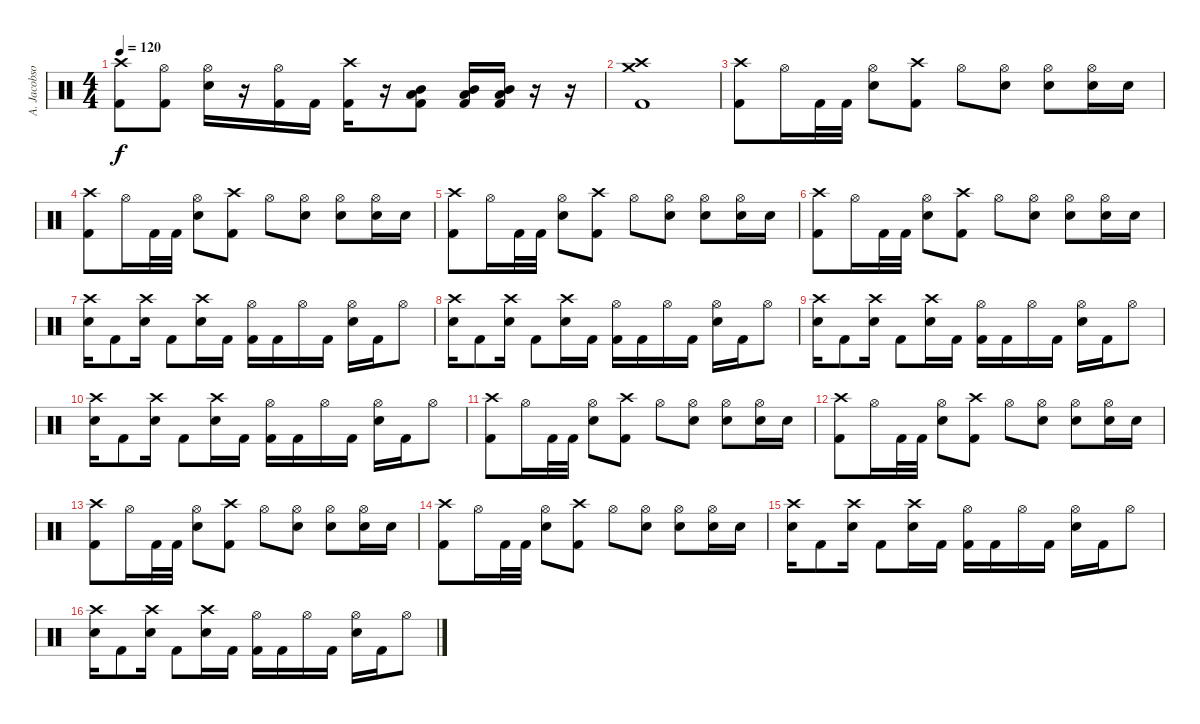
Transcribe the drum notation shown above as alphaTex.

\track ("A. Jacobson" "A. Jacobso") {instrument percussion}
\staff {score}
\articulation defaults
\ts (4 4)
\tempo 120
\clef neutral
\ks c
("Crash high (hit)" "Kick (hit) 2").8{dy f} ("Hi-Hat (open)" "Kick (hit) 2").8 ("Hi-Hat (open)" "Electric Snare (hit)").16 r.16 ("Hi-Hat (open)" "Kick (hit) 2").16 "Kick (hit) 2".16 ("Crash high (hit)" "Kick (hit) 2").16 r.16 ("Mid Tom (hit)" "Low Tom (hit)" "Kick (hit) 2").8 ("Mid Tom (hit)" "Low Tom (hit)" "Kick (hit) 2").16 ("Mid Tom (hit)" "Low Tom (hit)" "Kick (hit) 2").16 r.16 r.16 |
("Crash high (hit)" "Crash medium (hit)" "Kick (hit) 2").1 |
("Crash high (hit)" "Kick (hit) 2").8 "Hi-Hat (open)".16 "Kick (hit) 2".32 "Kick (hit) 2".32 ("Hi-Hat (open)" "Electric Snare (hit)").8 ("Crash high (hit)" "Kick (hit) 2").8 "Hi-Hat (open)".8 ("Hi-Hat (open)" "Electric Snare (hit)").8 ("Hi-Hat (open)" "Electric Snare (hit)").8 ("Hi-Hat (open)" "Electric Snare (hit)").16 "Electric Snare (hit)".16 |
("Crash high (hit)" "Kick (hit) 2").8 "Hi-Hat (open)".16 "Kick (hit) 2".32 "Kick (hit) 2".32 ("Hi-Hat (open)" "Electric Snare (hit)").8 ("Crash high (hit)" "Kick (hit) 2").8 "Hi-Hat (open)".8 ("Hi-Hat (open)" "Electric Snare (hit)").8 ("Hi-Hat (open)" "Electric Snare (hit)").8 ("Hi-Hat (open)" "Electric Snare (hit)").16 "Electric Snare (hit)".16 |
("Crash high (hit)" "Kick (hit) 2").8 "Hi-Hat (open)".16 "Kick (hit) 2".32 "Kick (hit) 2".32 ("Hi-Hat (open)" "Electric Snare (hit)").8 ("Crash high (hit)" "Kick (hit) 2").8 "Hi-Hat (open)".8 ("Hi-Hat (open)" "Electric Snare (hit)").8 ("Hi-Hat (open)" "Electric Snare (hit)").8 ("Hi-Hat (open)" "Electric Snare (hit)").16 "Electric Snare (hit)".16 |
("Crash high (hit)" "Kick (hit) 2").8 "Hi-Hat (open)".16 "Kick (hit) 2".32 "Kick (hit) 2".32 ("Hi-Hat (open)" "Electric Snare (hit)").8 ("Crash high (hit)" "Kick (hit) 2").8 "Hi-Hat (open)".8 ("Hi-Hat (open)" "Electric Snare (hit)").8 ("Hi-Hat (open)" "Electric Snare (hit)").8 ("Hi-Hat (open)" "Electric Snare (hit)").16 "Electric Snare (hit)".16 |
("Crash high (hit)" "Electric Snare (hit)").16 "Kick (hit) 2".8 ("Crash high (hit)" "Electric Snare (hit)").16 "Kick (hit) 2".8 ("Crash high (hit)" "Electric Snare (hit)").16 "Kick (hit) 2".16 ("Hi-Hat (open)" "Kick (hit) 2").16 "Kick (hit) 2".16 "Hi-Hat (open)".16 "Kick (hit) 2".16 ("Hi-Hat (open)" "Electric Snare (hit)").16 "Kick (hit) 2".16 "Hi-Hat (open)".8 |
("Crash high (hit)" "Electric Snare (hit)").16 "Kick (hit) 2".8 ("Crash high (hit)" "Electric Snare (hit)").16 "Kick (hit) 2".8 ("Crash high (hit)" "Electric Snare (hit)").16 "Kick (hit) 2".16 ("Hi-Hat (open)" "Kick (hit) 2").16 "Kick (hit) 2".16 "Hi-Hat (open)".16 "Kick (hit) 2".16 ("Hi-Hat (open)" "Electric Snare (hit)").16 "Kick (hit) 2".16 "Hi-Hat (open)".8 |
("Crash high (hit)" "Electric Snare (hit)").16 "Kick (hit) 2".8 ("Crash high (hit)" "Electric Snare (hit)").16 "Kick (hit) 2".8 ("Crash high (hit)" "Electric Snare (hit)").16 "Kick (hit) 2".16 ("Hi-Hat (open)" "Kick (hit) 2").16 "Kick (hit) 2".16 "Hi-Hat (open)".16 "Kick (hit) 2".16 ("Hi-Hat (open)" "Electric Snare (hit)").16 "Kick (hit) 2".16 "Hi-Hat (open)".8 |
("Crash high (hit)" "Electric Snare (hit)").16 "Kick (hit) 2".8 ("Crash high (hit)" "Electric Snare (hit)").16 "Kick (hit) 2".8 ("Crash high (hit)" "Electric Snare (hit)").16 "Kick (hit) 2".16 ("Hi-Hat (open)" "Kick (hit) 2").16 "Kick (hit) 2".16 "Hi-Hat (open)".16 "Kick (hit) 2".16 ("Hi-Hat (open)" "Electric Snare (hit)").16 "Kick (hit) 2".16 "Hi-Hat (open)".8 |
("Crash high (hit)" "Kick (hit) 2").8 "Hi-Hat (open)".16 "Kick (hit) 2".32 "Kick (hit) 2".32 ("Hi-Hat (open)" "Electric Snare (hit)").8 ("Crash high (hit)" "Kick (hit) 2").8 "Hi-Hat (open)".8 ("Hi-Hat (open)" "Electric Snare (hit)").8 ("Hi-Hat (open)" "Electric Snare (hit)").8 ("Hi-Hat (open)" "Electric Snare (hit)").16 "Electric Snare (hit)".16 |
("Crash high (hit)" "Kick (hit) 2").8 "Hi-Hat (open)".16 "Kick (hit) 2".32 "Kick (hit) 2".32 ("Hi-Hat (open)" "Electric Snare (hit)").8 ("Crash high (hit)" "Kick (hit) 2").8 "Hi-Hat (open)".8 ("Hi-Hat (open)" "Electric Snare (hit)").8 ("Hi-Hat (open)" "Electric Snare (hit)").8 ("Hi-Hat (open)" "Electric Snare (hit)").16 "Electric Snare (hit)".16 |
("Crash high (hit)" "Kick (hit) 2").8 "Hi-Hat (open)".16 "Kick (hit) 2".32 "Kick (hit) 2".32 ("Hi-Hat (open)" "Electric Snare (hit)").8 ("Crash high (hit)" "Kick (hit) 2").8 "Hi-Hat (open)".8 ("Hi-Hat (open)" "Electric Snare (hit)").8 ("Hi-Hat (open)" "Electric Snare (hit)").8 ("Hi-Hat (open)" "Electric Snare (hit)").16 "Electric Snare (hit)".16 |
("Crash high (hit)" "Kick (hit) 2").8 "Hi-Hat (open)".16 "Kick (hit) 2".32 "Kick (hit) 2".32 ("Hi-Hat (open)" "Electric Snare (hit)").8 ("Crash high (hit)" "Kick (hit) 2").8 "Hi-Hat (open)".8 ("Hi-Hat (open)" "Electric Snare (hit)").8 ("Hi-Hat (open)" "Electric Snare (hit)").8 ("Hi-Hat (open)" "Electric Snare (hit)").16 "Electric Snare (hit)".16 |
("Crash high (hit)" "Electric Snare (hit)").16 "Kick (hit) 2".8 ("Crash high (hit)" "Electric Snare (hit)").16 "Kick (hit) 2".8 ("Crash high (hit)" "Electric Snare (hit)").16 "Kick (hit) 2".16 ("Hi-Hat (open)" "Kick (hit) 2").16 "Kick (hit) 2".16 "Hi-Hat (open)".16 "Kick (hit) 2".16 ("Hi-Hat (open)" "Electric Snare (hit)").16 "Kick (hit) 2".16 "Hi-Hat (open)".8 |
("Crash high (hit)" "Electric Snare (hit)").16 "Kick (hit) 2".8 ("Crash high (hit)" "Electric Snare (hit)").16 "Kick (hit) 2".8 ("Crash high (hit)" "Electric Snare (hit)").16 "Kick (hit) 2".16 ("Hi-Hat (open)" "Kick (hit) 2").16 "Kick (hit) 2".16 "Hi-Hat (open)".16 "Kick (hit) 2".16 ("Hi-Hat (open)" "Electric Snare (hit)").16 "Kick (hit) 2".16 "Hi-Hat (open)".8
